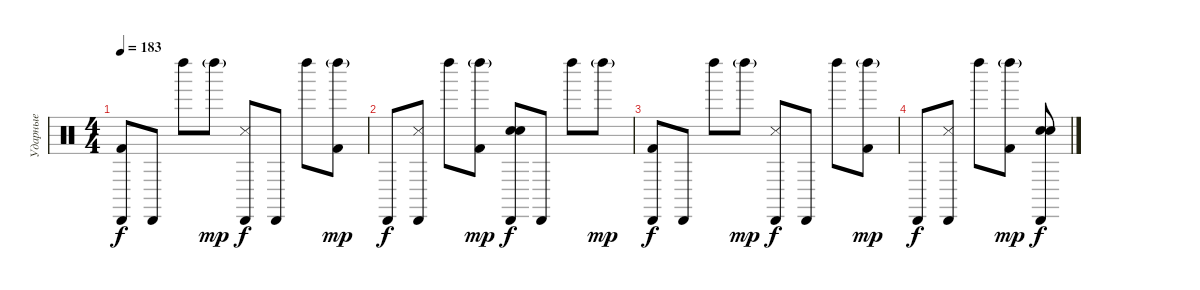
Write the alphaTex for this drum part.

\track ("Ударные" "Ударные") {instrument percussion}
\staff {score}
\articulation defaults
\ts (4 4)
\tempo 183
\clef neutral
\ks c
("Kick (hit) 2" "Cabasa (hit)").8{dy f} "Cabasa (hit)".8 "Left Maraca (hit)".8 "Left Maraca (hit)"{g}.8{dy mp} ("Snare (side stick) 3" "Cabasa (hit)").8{dy f} "Cabasa (hit)".8 "Left Maraca (hit)".8 ("Kick (hit) 2" "Left Maraca (hit)"{g}).8{dy mp} |
"Cabasa (hit)".8{dy f} ("Snare (side stick) 3" "Cabasa (hit)").8 "Left Maraca (hit)".8 ("Kick (hit) 2" "Left Maraca (hit)"{g}).8{dy mp} ("Hand Clap (hit)" "Snare (hit) 2" "Cabasa (hit)").8{dy f} "Cabasa (hit)".8 "Left Maraca (hit)".8 "Left Maraca (hit)"{g}.8{dy mp} |
("Kick (hit) 2" "Cabasa (hit)").8{dy f} "Cabasa (hit)".8 "Left Maraca (hit)".8 "Left Maraca (hit)"{g}.8{dy mp} ("Snare (side stick) 3" "Cabasa (hit)").8{dy f} "Cabasa (hit)".8 "Left Maraca (hit)".8 ("Kick (hit) 2" "Left Maraca (hit)"{g}).8{dy mp} |
"Cabasa (hit)".8{dy f} ("Snare (side stick) 3" "Cabasa (hit)").8 "Left Maraca (hit)".8 ("Kick (hit) 2" "Left Maraca (hit)"{g}).8{dy mp} ("Hand Clap (hit)" "Snare (hit) 2" "Cabasa (hit)").8{dy f}
